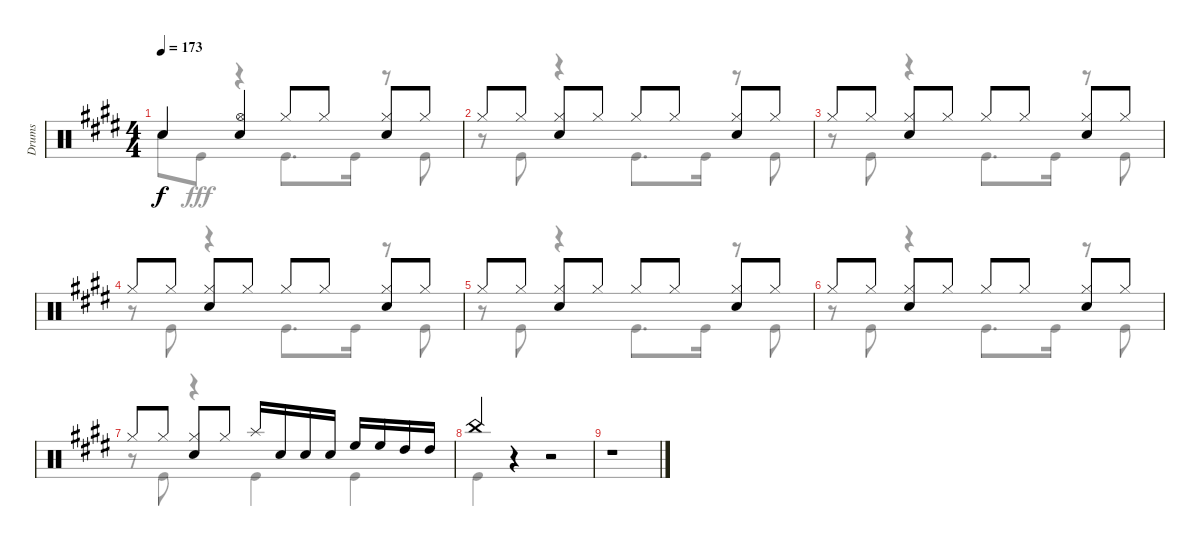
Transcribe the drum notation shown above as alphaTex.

\track ("Drums" "Drums") {instrument percussion}
\staff {score}
\articulation defaults
\voice
\ts (4 4)
\tempo 173
\clef neutral
\ks e "Snare (hit)"{t}.4{dy f}
("Hi-Hat (open)" "Snare (hit) 2").4 "Hi-Hat (closed)".8 "Hi-Hat (closed)".8 ("Hi-Hat (closed)" "Snare (hit) 2").8 "Hi-Hat (closed)".8 |
"Hi-Hat (closed)".8 "Hi-Hat (closed)".8 ("Hi-Hat (closed)" "Snare (hit) 2").8 "Hi-Hat (closed)".8 "Hi-Hat (closed)".8 "Hi-Hat (closed)".8 ("Hi-Hat (closed)" "Snare (hit) 2").8 "Hi-Hat (closed)".8 |
"Hi-Hat (closed)".8 "Hi-Hat (closed)".8 ("Hi-Hat (closed)" "Snare (hit) 2").8 "Hi-Hat (closed)".8 "Hi-Hat (closed)".8 "Hi-Hat (closed)".8 ("Hi-Hat (closed)" "Snare (hit) 2").8 "Hi-Hat (closed)".8 |
"Hi-Hat (closed)".8 "Hi-Hat (closed)".8 ("Hi-Hat (closed)" "Snare (hit) 2").8 "Hi-Hat (closed)".8 "Hi-Hat (closed)".8 "Hi-Hat (closed)".8 ("Hi-Hat (closed)" "Snare (hit) 2").8 "Hi-Hat (closed)".8 |
"Hi-Hat (closed)".8 "Hi-Hat (closed)".8 ("Hi-Hat (closed)" "Snare (hit) 2").8 "Hi-Hat (closed)".8 "Hi-Hat (closed)".8 "Hi-Hat (closed)".8 ("Hi-Hat (closed)" "Snare (hit) 2").8 "Hi-Hat (closed)".8 |
"Hi-Hat (closed)".8 "Hi-Hat (closed)".8 ("Hi-Hat (closed)" "Snare (hit) 2").8 "Hi-Hat (closed)".8 "Hi-Hat (closed)".8 "Hi-Hat (closed)".8 ("Hi-Hat (closed)" "Snare (hit) 2").8 "Hi-Hat (closed)".8 |
"Hi-Hat (closed)".8 "Hi-Hat (closed)".8 ("Hi-Hat (closed)" "Snare (hit) 2").8 "Hi-Hat (closed)".8 "Splash (hit)".16 "Snare (hit) 2".16 "Snare (hit) 2".16 "Snare (hit) 2".16 "High Floor Tom (hit)".16 "High Floor Tom (hit)".16 "High Tom (hit)".16 "High Tom (hit)".16 |
"China (hit)".4 r.4 r.2 |
r.1
\voice
\clef neutral
\ottava regular
\simile none
\ks e "Snare (hit)"{t}.8{dy f} "Kick (hit)".8{dy fff}
r.4 "Kick (hit)".8{d} "Kick (hit)".16 r.8 "Kick (hit)".8 |
r.8 "Kick (hit)".8 r.4 "Kick (hit)".8{d} "Kick (hit)".16 r.8 "Kick (hit)".8 |
r.8 "Kick (hit)".8 r.4 "Kick (hit)".8{d} "Kick (hit)".16 r.8 "Kick (hit)".8 |
r.8 "Kick (hit)".8 r.4 "Kick (hit)".8{d} "Kick (hit)".16 r.8 "Kick (hit)".8 |
r.8 "Kick (hit)".8 r.4 "Kick (hit)".8{d} "Kick (hit)".16 r.8 "Kick (hit)".8 |
r.8 "Kick (hit)".8 r.4 "Kick (hit)".8{d} "Kick (hit)".16 r.8 "Kick (hit)".8 |
r.8 "Kick (hit)".8 r.4 "Kick (hit)".4 "Kick (hit)".4 |
"Kick (hit)".4 r.4 r.2 |
r.1
